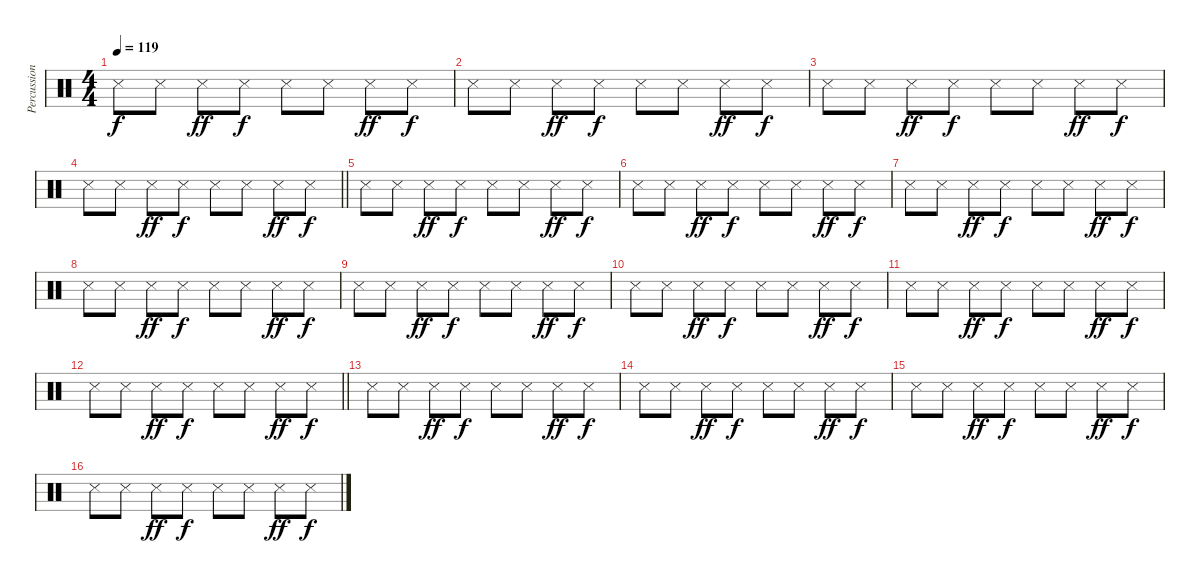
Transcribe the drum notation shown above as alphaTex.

\track ("Percussion" "Percussion") {instrument percussion}
\staff {score}
\articulation defaults
\ts (4 4)
\tempo 119
\clef neutral
\ks c "Snare (side stick) 3".8{dy f} "Snare (side stick) 3".8 "Snare (side stick) 3".8{dy ff} "Snare (side stick) 3".8{dy f} "Snare (side stick) 3".8 "Snare (side stick) 3".8 "Snare (side stick) 3".8{dy ff} "Snare (side stick) 3".8{dy f}
|
"Snare (side stick) 3".8 "Snare (side stick) 3".8 "Snare (side stick) 3".8{dy ff} "Snare (side stick) 3".8{dy f} "Snare (side stick) 3".8 "Snare (side stick) 3".8 "Snare (side stick) 3".8{dy ff} "Snare (side stick) 3".8{dy f} |
"Snare (side stick) 3".8 "Snare (side stick) 3".8 "Snare (side stick) 3".8{dy ff} "Snare (side stick) 3".8{dy f} "Snare (side stick) 3".8 "Snare (side stick) 3".8 "Snare (side stick) 3".8{dy ff} "Snare (side stick) 3".8{dy f} |
\barLineRight lightlight "Snare (side stick) 3".8 "Snare (side stick) 3".8 "Snare (side stick) 3".8{dy ff} "Snare (side stick) 3".8{dy f} "Snare (side stick) 3".8 "Snare (side stick) 3".8 "Snare (side stick) 3".8{dy ff} "Snare (side stick) 3".8{dy f}
|
"Snare (side stick) 3".8 "Snare (side stick) 3".8 "Snare (side stick) 3".8{dy ff} "Snare (side stick) 3".8{dy f} "Snare (side stick) 3".8 "Snare (side stick) 3".8 "Snare (side stick) 3".8{dy ff} "Snare (side stick) 3".8{dy f} |
"Snare (side stick) 3".8 "Snare (side stick) 3".8 "Snare (side stick) 3".8{dy ff} "Snare (side stick) 3".8{dy f} "Snare (side stick) 3".8 "Snare (side stick) 3".8 "Snare (side stick) 3".8{dy ff} "Snare (side stick) 3".8{dy f} |
"Snare (side stick) 3".8 "Snare (side stick) 3".8 "Snare (side stick) 3".8{dy ff} "Snare (side stick) 3".8{dy f} "Snare (side stick) 3".8 "Snare (side stick) 3".8 "Snare (side stick) 3".8{dy ff} "Snare (side stick) 3".8{dy f} |
"Snare (side stick) 3".8 "Snare (side stick) 3".8 "Snare (side stick) 3".8{dy ff} "Snare (side stick) 3".8{dy f} "Snare (side stick) 3".8 "Snare (side stick) 3".8 "Snare (side stick) 3".8{dy ff} "Snare (side stick) 3".8{dy f} |
"Snare (side stick) 3".8 "Snare (side stick) 3".8 "Snare (side stick) 3".8{dy ff} "Snare (side stick) 3".8{dy f} "Snare (side stick) 3".8 "Snare (side stick) 3".8 "Snare (side stick) 3".8{dy ff} "Snare (side stick) 3".8{dy f} |
"Snare (side stick) 3".8 "Snare (side stick) 3".8 "Snare (side stick) 3".8{dy ff} "Snare (side stick) 3".8{dy f} "Snare (side stick) 3".8 "Snare (side stick) 3".8 "Snare (side stick) 3".8{dy ff} "Snare (side stick) 3".8{dy f} |
"Snare (side stick) 3".8 "Snare (side stick) 3".8 "Snare (side stick) 3".8{dy ff} "Snare (side stick) 3".8{dy f} "Snare (side stick) 3".8 "Snare (side stick) 3".8 "Snare (side stick) 3".8{dy ff} "Snare (side stick) 3".8{dy f} |
\barLineRight lightlight "Snare (side stick) 3".8 "Snare (side stick) 3".8 "Snare (side stick) 3".8{dy ff} "Snare (side stick) 3".8{dy f} "Snare (side stick) 3".8 "Snare (side stick) 3".8 "Snare (side stick) 3".8{dy ff} "Snare (side stick) 3".8{dy f}
|
"Snare (side stick) 3".8 "Snare (side stick) 3".8 "Snare (side stick) 3".8{dy ff} "Snare (side stick) 3".8{dy f} "Snare (side stick) 3".8 "Snare (side stick) 3".8 "Snare (side stick) 3".8{dy ff} "Snare (side stick) 3".8{dy f} |
"Snare (side stick) 3".8 "Snare (side stick) 3".8 "Snare (side stick) 3".8{dy ff} "Snare (side stick) 3".8{dy f} "Snare (side stick) 3".8 "Snare (side stick) 3".8 "Snare (side stick) 3".8{dy ff} "Snare (side stick) 3".8{dy f} |
"Snare (side stick) 3".8 "Snare (side stick) 3".8 "Snare (side stick) 3".8{dy ff} "Snare (side stick) 3".8{dy f} "Snare (side stick) 3".8 "Snare (side stick) 3".8 "Snare (side stick) 3".8{dy ff} "Snare (side stick) 3".8{dy f} |
"Snare (side stick) 3".8 "Snare (side stick) 3".8 "Snare (side stick) 3".8{dy ff} "Snare (side stick) 3".8{dy f} "Snare (side stick) 3".8 "Snare (side stick) 3".8 "Snare (side stick) 3".8{dy ff} "Snare (side stick) 3".8{dy f}
